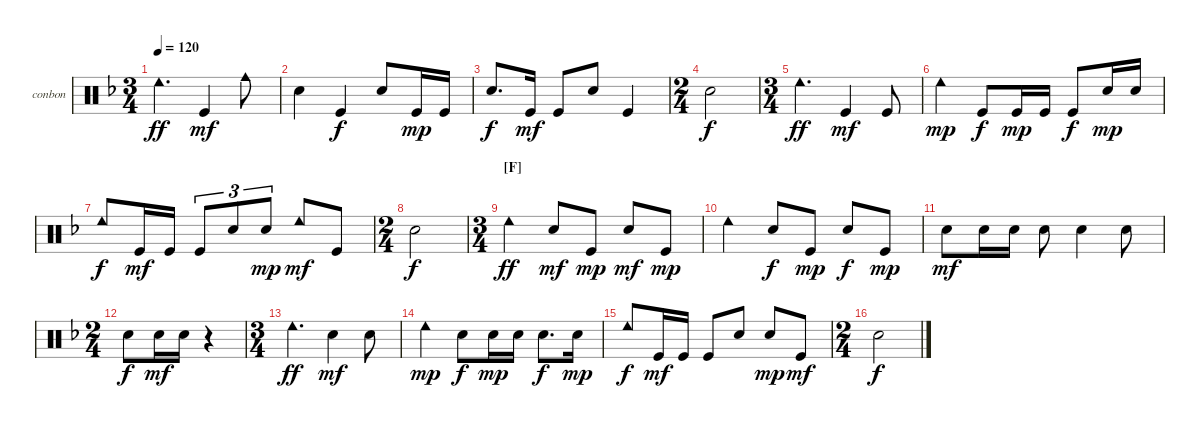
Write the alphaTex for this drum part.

\defaultSystemsLayout 4
\bracketExtendMode groupsimilarinstruments
\firstSystemTrackNameOrientation horizontal
\otherSystemsTrackNameOrientation horizontal
\track ("Bongos N Congas" "conbon") {instrument percussion}
\staff {score}
\articulation defaults
\ts (3 4)
\tempo 120
\clef neutral
\ks f "Cowbell low (hit)".4{d dy ff} "Kick (hit)".4{dy mf} "Cowbell medium (hit)".8
|
"Snare (hit) 2".4 "Kick (hit)".4{dy f} "Snare (hit) 2".8 "Kick (hit)".16{dy mp} "Kick (hit)".16 |
"Snare (hit) 2".8{d dy f} "Kick (hit)".16{dy mf} "Kick (hit)".8 "Snare (hit) 2".8 "Kick (hit)".4 |
\ts (2 4)
"Snare (hit) 2".2{dy f} |
\ts (3 4)
"Cowbell low (hit)".4{d dy ff} "Kick (hit)".4{dy mf} "Kick (hit)".8 |
"Cowbell low (hit)".4{dy mp} "Kick (hit)".8{dy f} "Kick (hit)".16{dy mp} "Kick (hit)".16 "Kick (hit)".8{dy f} "Snare (hit) 2".16{dy mp} "Snare (hit) 2".16 |
"Cowbell low (hit)".8{dy f} "Kick (hit)".16{dy mf} "Kick (hit)".16 "Kick (hit)".8{tu (3 2)} "Snare (hit) 2".8{tu (3 2)} "Snare (hit) 2".8{tu (3 2) dy mp} "Cowbell low (hit)".8{dy mf} "Kick (hit)".8 |
\ts (2 4)
"Snare (hit) 2".2{dy f} |
\ts (3 4)
\section ("F" "")
"Cowbell low (hit)".4{dy ff} "Snare (hit) 2".8{dy mf} "Kick (hit)".8{dy mp} "Snare (hit) 2".8{dy mf} "Kick (hit)".8{dy mp} |
"Cowbell low (hit)".4 "Snare (hit) 2".8{dy f} "Kick (hit)".8{dy mp} "Snare (hit) 2".8{dy f} "Kick (hit)".8{dy mp} |
"Snare (hit) 2".8{dy mf} "Snare (hit) 2".16 "Snare (hit) 2".16 "Snare (hit) 2".8 "Snare (hit) 2".4 "Snare (hit) 2".8 |
\ts (2 4)
"Snare (hit) 2".8{dy f} "Snare (hit) 2".16{dy mf} "Snare (hit) 2".16 r.4 |
\ts (3 4)
"Cowbell low (hit)".4{d dy ff} "Snare (hit) 2".4{dy mf} "Snare (hit) 2".8 |
"Cowbell low (hit)".4{dy mp} "Snare (hit) 2".8{dy f} "Snare (hit) 2".16{dy mp} "Snare (hit) 2".16 "Snare (hit) 2".8{d dy f} "Snare (hit) 2".16{dy mp} |
"Cowbell low (hit)".8{dy f} "Kick (hit)".16{dy mf} "Kick (hit)".16 "Kick (hit)".8 "Snare (hit) 2".8 "Snare (hit) 2".8{dy mp} "Kick (hit)".8{dy mf} |
\ts (2 4)
"Snare (hit) 2".2{dy f}
